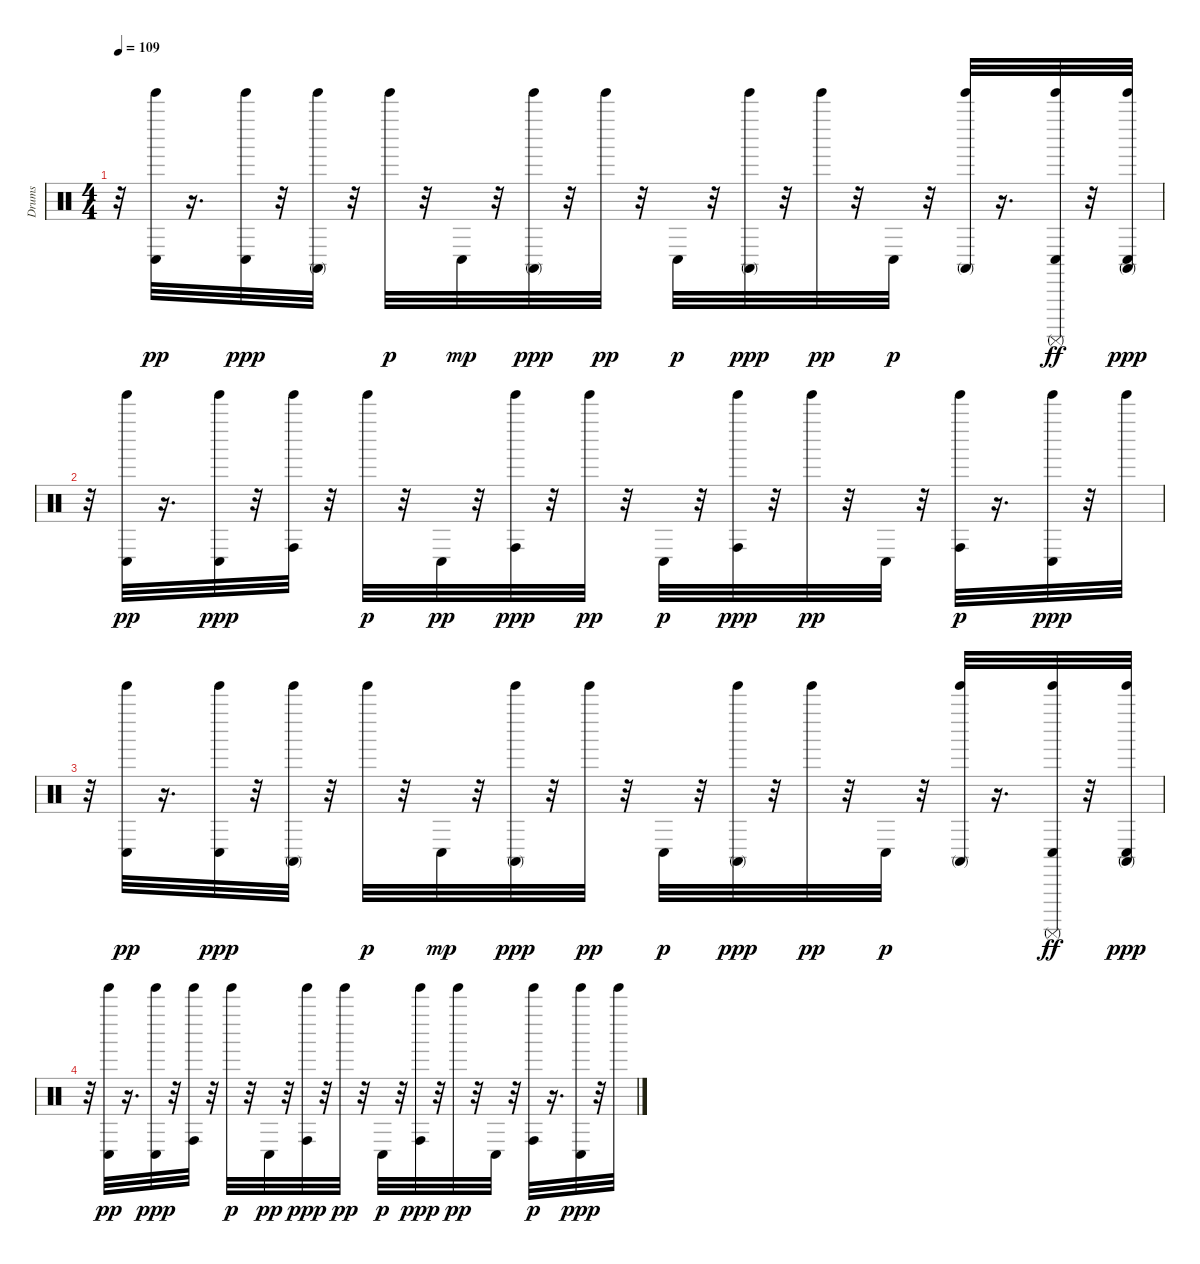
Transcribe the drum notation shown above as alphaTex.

\track ("Drums" "Drums") {instrument percussion}
\staff {score}
\articulation defaults
\ts (4 4)
\tempo 109
\clef neutral
\ks c
r.32{dy ppp} ("Conga low (hit)" "Tinkle Bell (hit)").32{dy pp} r.16{d} ("Conga low (hit)" "Tinkle Bell (hit)").32{dy ppp} r.32 ("Conga high (mute)" "Tinkle Bell (hit)").32 r.32 "Tinkle Bell (hit)".32{dy p} r.32 "Conga low (hit)".32{dy mp} r.32 ("Conga high (mute)" "Tinkle Bell (hit)").32{dy ppp} r.32 "Tinkle Bell (hit)".32{dy pp} r.32 "Conga low (hit)".32{dy p} r.32 ("Conga high (mute)" "Tinkle Bell (hit)").32{dy ppp} r.32 "Tinkle Bell (hit)".32{dy pp} r.32 "Conga low (hit)".32{dy p} r.32 ("Conga high (mute)" "Tinkle Bell (hit)").32 r.16{d} ("Conga low (hit)" "Tinkle Bell (hit)" "Surdo (mute)").32{dy ff} r.32 ("Conga high (mute)" "Conga low (hit)" "Tinkle Bell (hit)").32{dy ppp} |
r.32 ("Conga low (hit)" "Tinkle Bell (hit)").32{dy pp} r.16{d} ("Conga low (hit)" "Tinkle Bell (hit)").32{dy ppp} r.32 ("Conga high (hit)" "Tinkle Bell (hit)").32 r.32 "Tinkle Bell (hit)".32{dy p} r.32 "Conga low (hit)".32{dy pp} r.32 ("Conga high (hit)" "Tinkle Bell (hit)").32{dy ppp} r.32 "Tinkle Bell (hit)".32{dy pp} r.32 "Conga low (hit)".32{dy p} r.32 ("Conga high (hit)" "Tinkle Bell (hit)").32{dy ppp} r.32 "Tinkle Bell (hit)".32{dy pp} r.32 "Conga low (hit)".32 r.32 ("Conga high (hit)" "Tinkle Bell (hit)").32{dy p} r.16{d} ("Conga low (hit)" "Tinkle Bell (hit)").32{dy ppp} r.32 "Tinkle Bell (hit)".32 |
r.32 ("Conga low (hit)" "Tinkle Bell (hit)").32{dy pp} r.16{d} ("Conga low (hit)" "Tinkle Bell (hit)").32{dy ppp} r.32 ("Conga high (mute)" "Tinkle Bell (hit)").32 r.32 "Tinkle Bell (hit)".32{dy p} r.32 "Conga low (hit)".32{dy mp} r.32 ("Conga high (mute)" "Tinkle Bell (hit)").32{dy ppp} r.32 "Tinkle Bell (hit)".32{dy pp} r.32 "Conga low (hit)".32{dy p} r.32 ("Conga high (mute)" "Tinkle Bell (hit)").32{dy ppp} r.32 "Tinkle Bell (hit)".32{dy pp} r.32 "Conga low (hit)".32{dy p} r.32 ("Conga high (mute)" "Tinkle Bell (hit)").32 r.16{d} ("Conga low (hit)" "Tinkle Bell (hit)" "Surdo (mute)").32{dy ff} r.32 ("Conga high (mute)" "Conga low (hit)" "Tinkle Bell (hit)").32{dy ppp} |
r.32 ("Conga low (hit)" "Tinkle Bell (hit)").32{dy pp} r.16{d} ("Conga low (hit)" "Tinkle Bell (hit)").32{dy ppp} r.32 ("Conga high (hit)" "Tinkle Bell (hit)").32 r.32 "Tinkle Bell (hit)".32{dy p} r.32 "Conga low (hit)".32{dy pp} r.32 ("Conga high (hit)" "Tinkle Bell (hit)").32{dy ppp} r.32 "Tinkle Bell (hit)".32{dy pp} r.32 "Conga low (hit)".32{dy p} r.32 ("Conga high (hit)" "Tinkle Bell (hit)").32{dy ppp} r.32 "Tinkle Bell (hit)".32{dy pp} r.32 "Conga low (hit)".32 r.32 ("Conga high (hit)" "Tinkle Bell (hit)").32{dy p} r.16{d} ("Conga low (hit)" "Tinkle Bell (hit)").32{dy ppp} r.32 "Tinkle Bell (hit)".32
